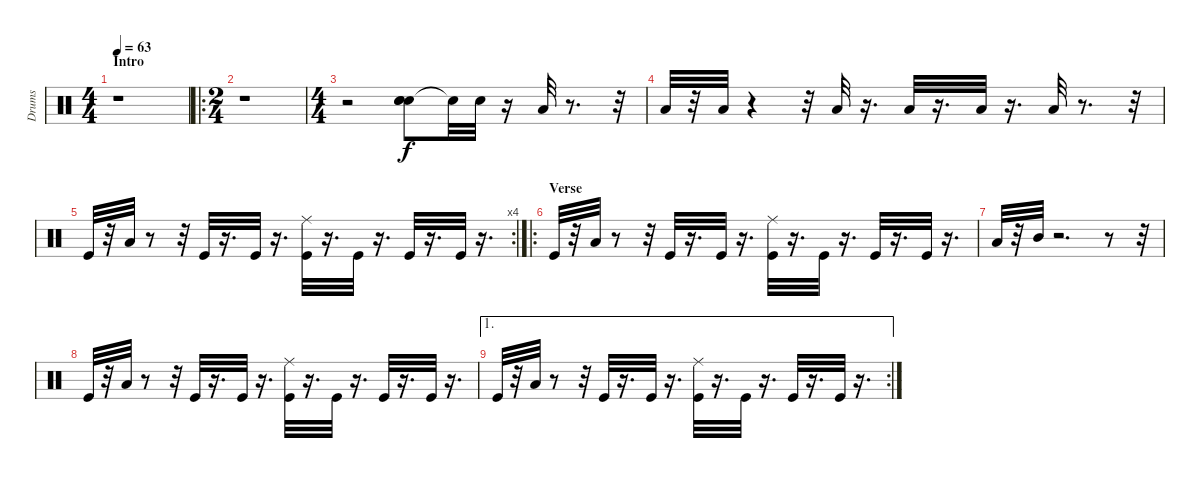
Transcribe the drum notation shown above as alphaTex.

\track ("Drums" "Drums") {instrument percussion}
\staff {score}
\articulation defaults
\ts (4 4)
\section ("" "Intro")
\tempo 63
\clef neutral
\ks c
r.1{dy f} |
\ro
\ts (2 4)
r.1 |
\ts (4 4)
r.2 ("Snare (hit) 2" "Snare (hit) 2" "Snare (hit) 2").8 "Snare (hit)"{t}.32 "Snare (hit) 2".32 r.16 "Low Tom (hit)".32 r.8{d} r.32 |
"Low Tom (hit)".32 r.32 "Low Tom (hit)".32 r.4 r.32 "Low Tom (hit)".32 r.16{d} "Low Tom (hit)".32 r.16{d} "Low Tom (hit)".32 r.16{d} "Low Tom (hit)".32 r.8{d} r.32 |
\rc 4 "Kick (hit)".32
r.32 "Low Tom (hit)".32 r.8 r.32 "Kick (hit)".32 r.16{d} "Kick (hit)".32 r.16{d} ("Ride (middle)" "Kick (hit)").32 r.16{d} "Kick (hit)".32 r.16{d} "Kick (hit)".32 r.16{d} "Kick (hit)".32 r.16{d} |
\ro
\section ("" "Verse")
"Kick (hit)".32 r.32 "Low Tom (hit)".32 r.8 r.32 "Kick (hit)".32 r.16{d} "Kick (hit)".32 r.16{d} ("Ride (middle)" "Kick (hit)").32 r.16{d} "Kick (hit)".32 r.16{d} "Kick (hit)".32 r.16{d} "Kick (hit)".32 r.16{d} |
"Low Tom (hit)".32 r.32 "Mid Tom (hit)".32 r.2{d} r.8 r.32 |
"Kick (hit)".32 r.32 "Low Tom (hit)".32 r.8 r.32 "Kick (hit)".32 r.16{d} "Kick (hit)".32 r.16{d} ("Ride (middle)" "Kick (hit)").32 r.16{d} "Kick (hit)".32 r.16{d} "Kick (hit)".32 r.16{d} "Kick (hit)".32 r.16{d} |
\ae 1
\rc 2 "Kick (hit)".32
r.32 "Low Tom (hit)".32 r.8 r.32 "Kick (hit)".32 r.16{d} "Kick (hit)".32 r.16{d} ("Ride (middle)" "Kick (hit)").32 r.16{d} "Kick (hit)".32 r.16{d} "Kick (hit)".32 r.16{d} "Kick (hit)".32 r.16{d}
